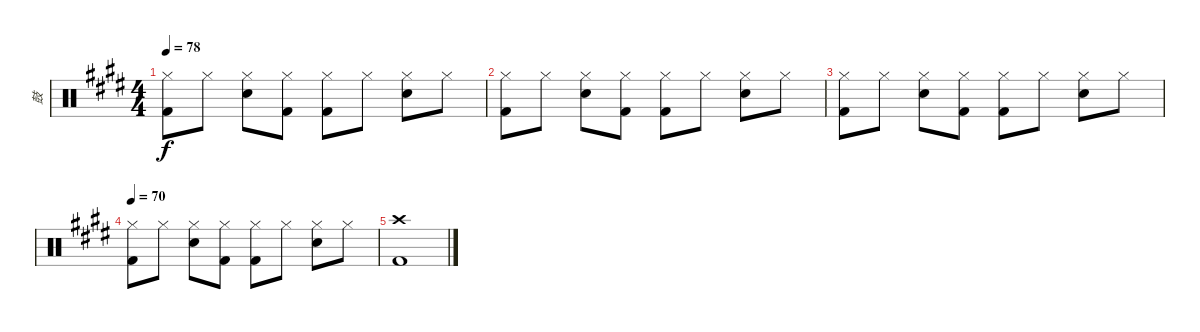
\track ("鼓" "鼓") {instrument percussion}
\staff {score}
\articulation defaults
\ts (4 4)
\tempo 78
\clef neutral
\ks e
("Hi-Hat (closed)" "Kick (hit) 2").8{dy f} "Hi-Hat (closed)".8 ("Hi-Hat (closed)" "Electric Snare (hit)").8 ("Hi-Hat (closed)" "Kick (hit) 2").8 ("Hi-Hat (closed)" "Kick (hit) 2").8 "Hi-Hat (closed)".8 ("Hi-Hat (closed)" "Electric Snare (hit)").8 "Hi-Hat (closed)".8 |
("Hi-Hat (closed)" "Kick (hit) 2").8 "Hi-Hat (closed)".8 ("Hi-Hat (closed)" "Electric Snare (hit)").8 ("Hi-Hat (closed)" "Kick (hit) 2").8 ("Hi-Hat (closed)" "Kick (hit) 2").8 "Hi-Hat (closed)".8 ("Hi-Hat (closed)" "Electric Snare (hit)").8 "Hi-Hat (closed)".8 |
("Hi-Hat (closed)" "Kick (hit) 2").8 "Hi-Hat (closed)".8 ("Hi-Hat (closed)" "Electric Snare (hit)").8 ("Hi-Hat (closed)" "Kick (hit) 2").8 ("Hi-Hat (closed)" "Kick (hit) 2").8 "Hi-Hat (closed)".8 ("Hi-Hat (closed)" "Electric Snare (hit)").8 "Hi-Hat (closed)".8 |
\tempo 70
("Hi-Hat (closed)" "Kick (hit) 2").8 "Hi-Hat (closed)".8 ("Hi-Hat (closed)" "Electric Snare (hit)").8 ("Hi-Hat (closed)" "Kick (hit) 2").8 ("Hi-Hat (closed)" "Kick (hit) 2").8 "Hi-Hat (closed)".8 ("Hi-Hat (closed)" "Electric Snare (hit)").8 "Hi-Hat (closed)".8 |
("Crash high (hit)" "Kick (hit) 2").1
